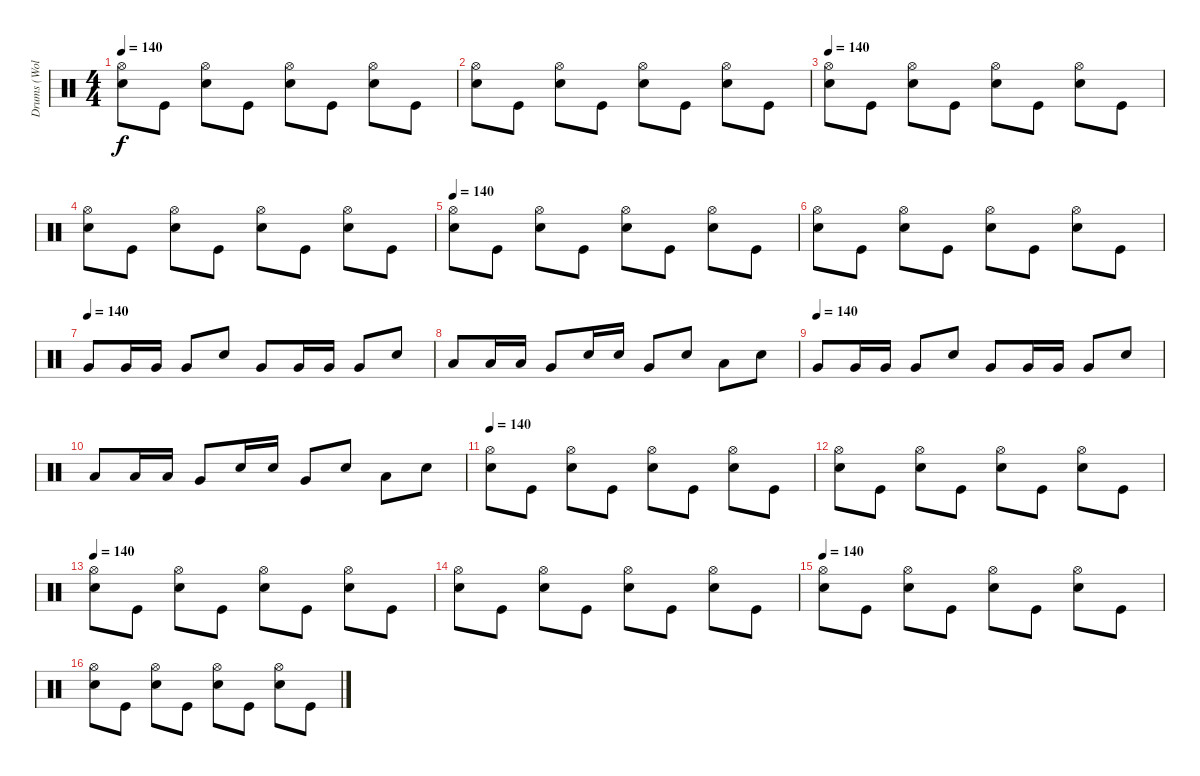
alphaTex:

\track ("Drums (Wolf Simons)" "Drums (Wol") {instrument percussion}
\staff {score}
\articulation defaults
\ts (4 4)
\tempo 140
\clef neutral
\ks c
("Hi-Hat (open)" "Electric Snare (hit)").8{dy f} "Kick (hit)".8 ("Hi-Hat (open)" "Electric Snare (hit)").8 "Kick (hit)".8 ("Hi-Hat (open)" "Electric Snare (hit)").8 "Kick (hit)".8 ("Hi-Hat (open)" "Electric Snare (hit)").8 "Kick (hit)".8 |
("Hi-Hat (open)" "Electric Snare (hit)").8 "Kick (hit)".8 ("Hi-Hat (open)" "Electric Snare (hit)").8 "Kick (hit)".8 ("Hi-Hat (open)" "Electric Snare (hit)").8 "Kick (hit)".8 ("Hi-Hat (open)" "Electric Snare (hit)").8 "Kick (hit)".8 |
\tempo 140
("Hi-Hat (open)" "Electric Snare (hit)").8 "Kick (hit)".8 ("Hi-Hat (open)" "Electric Snare (hit)").8 "Kick (hit)".8 ("Hi-Hat (open)" "Electric Snare (hit)").8 "Kick (hit)".8 ("Hi-Hat (open)" "Electric Snare (hit)").8 "Kick (hit)".8 |
("Hi-Hat (open)" "Electric Snare (hit)").8 "Kick (hit)".8 ("Hi-Hat (open)" "Electric Snare (hit)").8 "Kick (hit)".8 ("Hi-Hat (open)" "Electric Snare (hit)").8 "Kick (hit)".8 ("Hi-Hat (open)" "Electric Snare (hit)").8 "Kick (hit)".8 |
\tempo 140
("Hi-Hat (open)" "Electric Snare (hit)").8 "Kick (hit)".8 ("Hi-Hat (open)" "Electric Snare (hit)").8 "Kick (hit)".8 ("Hi-Hat (open)" "Electric Snare (hit)").8 "Kick (hit)".8 ("Hi-Hat (open)" "Electric Snare (hit)").8 "Kick (hit)".8 |
("Hi-Hat (open)" "Electric Snare (hit)").8 "Kick (hit)".8 ("Hi-Hat (open)" "Electric Snare (hit)").8 "Kick (hit)".8 ("Hi-Hat (open)" "Electric Snare (hit)").8 "Kick (hit)".8 ("Hi-Hat (open)" "Electric Snare (hit)").8 "Kick (hit)".8 |
\tempo (140)
"Very Low Tom (hit)".8 "Very Low Tom (hit)".16 "Very Low Tom (hit)".16 "Very Low Tom (hit)".8 "Electric Snare (hit)".8 "Very Low Tom (hit)".8 "Very Low Tom (hit)".16 "Very Low Tom (hit)".16 "Very Low Tom (hit)".8 "Electric Snare (hit)".8 |
"Low Tom (hit)".8 "Low Tom (hit)".16 "Low Tom (hit)".16 "Very Low Tom (hit)".8 "Electric Snare (hit)".16 "Electric Snare (hit)".16 "Very Low Tom (hit)".8 "Electric Snare (hit)".8 "Low Tom (hit)".8 "Electric Snare (hit)".8 |
\tempo (140)
"Very Low Tom (hit)".8 "Very Low Tom (hit)".16 "Very Low Tom (hit)".16 "Very Low Tom (hit)".8 "Electric Snare (hit)".8 "Very Low Tom (hit)".8 "Very Low Tom (hit)".16 "Very Low Tom (hit)".16 "Very Low Tom (hit)".8 "Electric Snare (hit)".8 |
"Low Tom (hit)".8 "Low Tom (hit)".16 "Low Tom (hit)".16 "Very Low Tom (hit)".8 "Electric Snare (hit)".16 "Electric Snare (hit)".16 "Very Low Tom (hit)".8 "Electric Snare (hit)".8 "Low Tom (hit)".8 "Electric Snare (hit)".8 |
\tempo 140
("Hi-Hat (open)" "Electric Snare (hit)").8 "Kick (hit)".8 ("Hi-Hat (open)" "Electric Snare (hit)").8 "Kick (hit)".8 ("Hi-Hat (open)" "Electric Snare (hit)").8 "Kick (hit)".8 ("Hi-Hat (open)" "Electric Snare (hit)").8 "Kick (hit)".8 |
("Hi-Hat (open)" "Electric Snare (hit)").8 "Kick (hit)".8 ("Hi-Hat (open)" "Electric Snare (hit)").8 "Kick (hit)".8 ("Hi-Hat (open)" "Electric Snare (hit)").8 "Kick (hit)".8 ("Hi-Hat (open)" "Electric Snare (hit)").8 "Kick (hit)".8 |
\tempo 140
("Hi-Hat (open)" "Electric Snare (hit)").8 "Kick (hit)".8 ("Hi-Hat (open)" "Electric Snare (hit)").8 "Kick (hit)".8 ("Hi-Hat (open)" "Electric Snare (hit)").8 "Kick (hit)".8 ("Hi-Hat (open)" "Electric Snare (hit)").8 "Kick (hit)".8 |
("Hi-Hat (open)" "Electric Snare (hit)").8 "Kick (hit)".8 ("Hi-Hat (open)" "Electric Snare (hit)").8 "Kick (hit)".8 ("Hi-Hat (open)" "Electric Snare (hit)").8 "Kick (hit)".8 ("Hi-Hat (open)" "Electric Snare (hit)").8 "Kick (hit)".8 |
\tempo 140
("Hi-Hat (open)" "Electric Snare (hit)").8 "Kick (hit)".8 ("Hi-Hat (open)" "Electric Snare (hit)").8 "Kick (hit)".8 ("Hi-Hat (open)" "Electric Snare (hit)").8 "Kick (hit)".8 ("Hi-Hat (open)" "Electric Snare (hit)").8 "Kick (hit)".8 |
("Hi-Hat (open)" "Electric Snare (hit)").8 "Kick (hit)".8 ("Hi-Hat (open)" "Electric Snare (hit)").8 "Kick (hit)".8 ("Hi-Hat (open)" "Electric Snare (hit)").8 "Kick (hit)".8 ("Hi-Hat (open)" "Electric Snare (hit)").8 "Kick (hit)".8
